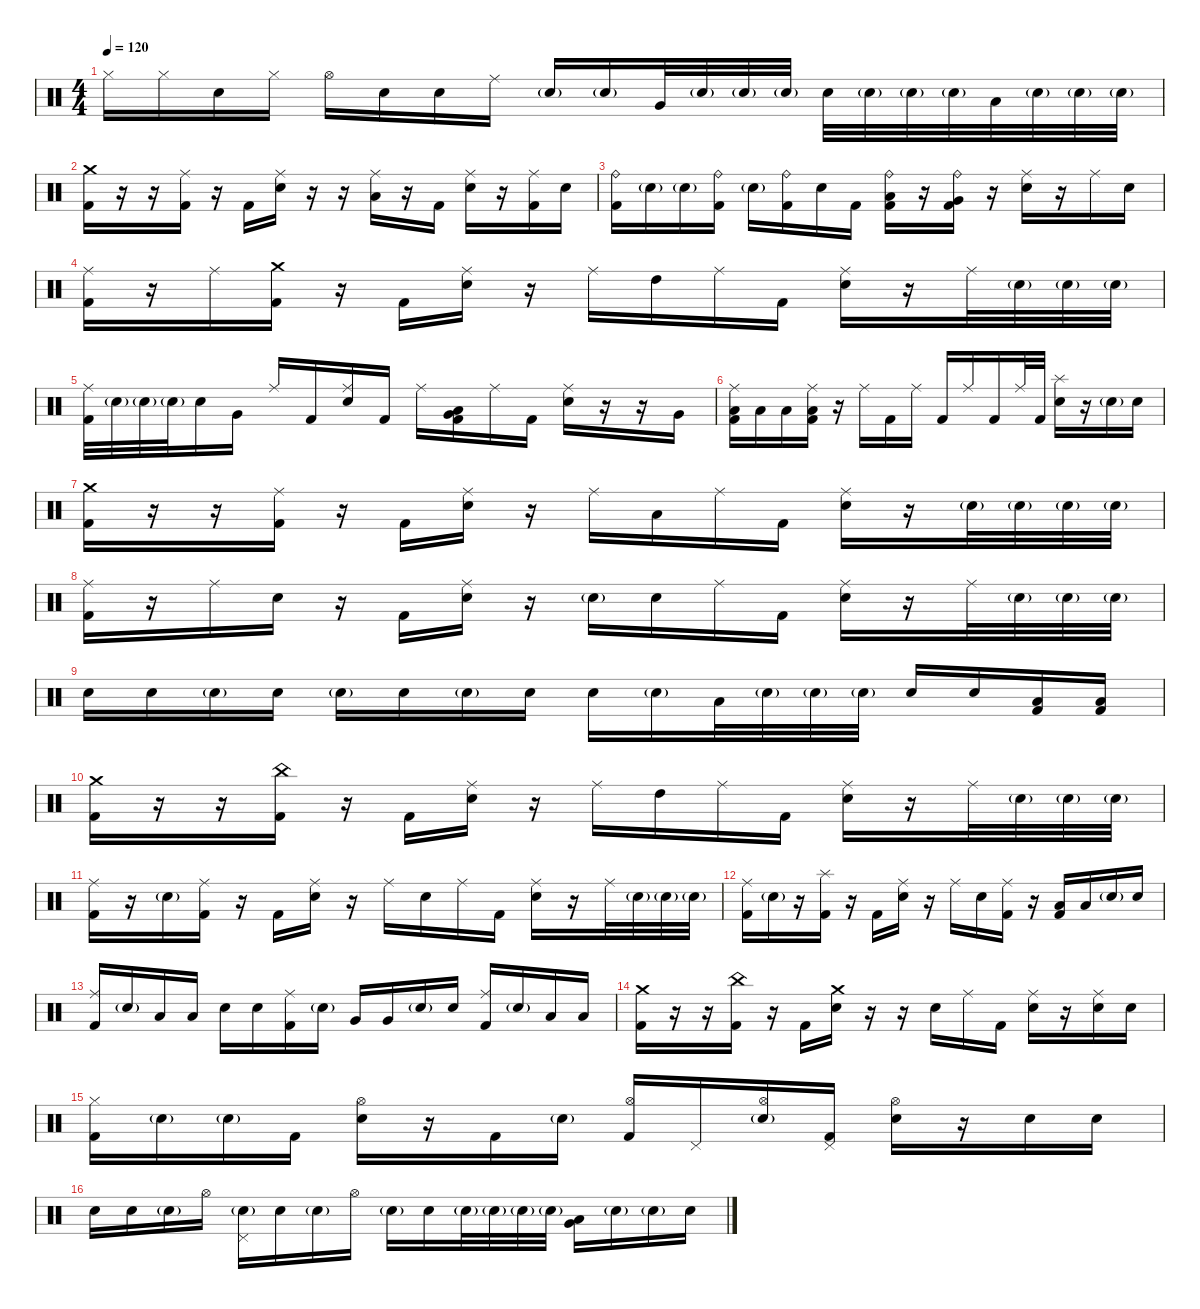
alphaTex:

\defaultSystemsLayout 4
\hideDynamics
\bracketExtendMode nobrackets
\singleTrackTrackNamePolicy hidden
\multiTrackTrackNamePolicy hidden
\firstSystemTrackNameMode fullname
\firstSystemTrackNameOrientation horizontal
\otherSystemsTrackNameOrientation horizontal
\track ("Martin Axenrot - Drums" "drm.") {instrument percussion}
\staff {score}
\articulation defaults
\ts (4 4)
\tempo 120
\clef neutral
\ks c "Hi-Hat (closed)".16{dy f beam Down} "Hi-Hat (closed)".16{beam Down} "Snare (hit) 2".16{beam Down} "Hi-Hat (closed)".16{dy mf beam Down} "Hi-Hat (open)".16{beam Down} "Snare (hit) 2".16{dy f beam Down} "Snare (hit) 2".16{beam Down} "Ride (middle)".16{dy ff beam Down} "Snare (hit) 2"{g}.16{dy mf beam Up} "Snare (hit) 2"{g}.16{beam Up} "Very Low Tom (hit)".32{dy ff beam Up} "Snare (hit) 2"{g}.32{dy mf beam Up} "Snare (hit) 2"{g}.32{beam Up} "Snare (hit) 2"{g}.32{beam Up} "Snare (hit) 2".32{dy f beam Down} "Snare (hit) 2"{g}.32{dy mf beam Down} "Snare (hit) 2"{g}.32{beam Down} "Snare (hit) 2"{g}.32{beam Down} "Low Floor Tom (hit)".32{dy ff beam Down} "Snare (hit) 2"{g}.32{dy mf beam Down} "Snare (hit) 2"{g}.32{beam Down} "Snare (hit) 2"{g}.32{beam Down}
|
("Crash medium (hit)" "Kick (hit) 2").16{dy f beam Down} r.16{beam Down} r.16{beam Down} ("Ride (middle)" "Kick (hit) 2").16{beam Down} r.16{beam Down} "Kick (hit) 2".16{beam Down} ("Ride (middle)" "Snare (hit) 2").16{beam Down} r.16{beam Down} r.16{beam Down} ("Ride (middle)" "Low Tom (hit)").16{beam Down} r.16{beam Down} "Kick (hit) 2".16{beam Down} ("Ride (middle)" "Snare (hit) 2").16{beam Down} r.16{beam Down} ("Ride (middle)" "Kick (hit) 2").16{beam Down} "Snare (hit) 2".16{beam Down} |
("Ride (bell)" "Kick (hit) 2").16{beam Down} "Snare (hit) 2"{g}.16{dy mf beam Down} "Snare (hit) 2"{g}.16{beam Down} ("Ride (bell)" "Kick (hit) 2").16{dy f beam Down} "Snare (hit) 2"{g}.16{dy mf beam Down} ("Ride (bell)" "Kick (hit) 2").16{dy f beam Down} "Snare (hit) 2".16{beam Down} "Kick (hit) 2".16{beam Down} ("Ride (bell)" "Low Tom (hit)" "Kick (hit) 2").16{beam Down} r.16{beam Down} ("Ride (bell)" "Very Low Tom (hit)" "Kick (hit) 2").16{beam Down} r.16{beam Down} ("Ride (middle)" "Snare (hit) 2").16{beam Down} r.16{beam Down} "Ride (middle)".16{beam Down} "Snare (hit) 2".16{beam Down} |
("Ride (middle)" "Kick (hit) 2").16{beam Down} r.16{beam Down} "Ride (middle)".16{beam Down} ("Crash medium (hit)" "Kick (hit) 2").16{dy mf beam Down} r.16{beam Down} "Kick (hit) 2".16{dy f beam Down} ("Ride (middle)" "Snare (hit) 2").16{beam Down} r.16{beam Down} "Ride (middle)".16{beam Down} "High Tom (hit)".16{dy ff beam Down} "Ride (middle)".16{dy mp beam Down} "Kick (hit) 2".16{dy f beam Down} ("Ride (middle)" "Snare (hit) 2").16{beam Down} r.16{beam Down} "Ride (middle)".32{beam Down} "Snare (hit) 2"{g}.32{dy mf beam Down} "Snare (hit) 2"{g}.32{beam Down} "Snare (hit) 2"{g}.32{beam Down} |
("Ride (middle)" "Kick (hit) 2").32{dy f beam Down} "Snare (hit) 2"{g}.32{dy mf beam Down} "Snare (hit) 2"{g}.32{beam Down} "Snare (hit) 2"{g}.32{beam Down} "Snare (hit) 2".16{dy f beam Down} "Very Low Tom (hit)".16{dy ff beam Down} "Ride (middle)".16{dy f beam Up} "Kick (hit) 2".16{beam Up} ("Ride (middle)" "Snare (hit) 2").16{beam Up} "Kick (hit) 2".16{beam Up} "Ride (middle)".16{beam Down} ("Low Tom (hit)" "Very Low Tom (hit)" "Kick (hit) 2").16{beam Down} "Ride (middle)".16{beam Down} "Kick (hit) 2".16{beam Down} ("Ride (middle)" "Snare (hit) 2").16{dy fff beam Down} r.16{beam Down} r.16{beam Down} "Very Low Tom (hit)".16{dy f beam Down} |
("Ride (middle)" "Low Floor Tom (hit)" "Kick (hit) 2").16{beam Down} "Low Floor Tom (hit)".16{beam Down} "Low Floor Tom (hit)".16{beam Down} ("Ride (middle)" "Low Floor Tom (hit)" "Kick (hit) 2").16{beam Down} r.16{beam Down} "Ride (middle)".16{beam Down} "Kick (hit) 2".16{beam Down} "Ride (middle)".16{beam Down} "Kick (hit) 2".16{beam Up} "Ride (middle)".16{beam Up} "Kick (hit) 2".16{beam Up} "Ride (middle)".32{beam Up} "Kick (hit) 2".32{beam Up} ("Splash (hit)" "Snare (hit) 2").16{dy fff beam Down} r.16{beam Down} "Snare (hit) 2"{g}.16{dy mf beam Down} "Snare (hit) 2".16{dy f beam Down} |
("Crash medium (hit)" "Kick (hit) 2").16{beam Down} r.16{beam Down} r.16{beam Down} ("Ride (middle)" "Kick (hit) 2").16{beam Down} r.16{beam Down} "Kick (hit) 2".16{beam Down} ("Ride (middle)" "Snare (hit) 2").16{beam Down} r.16{beam Down} "Ride (middle)".16{beam Down} "Low Tom (hit)".16{dy ff beam Down} "Ride (middle)".16{dy f beam Down} "Kick (hit) 2".16{beam Down} ("Ride (middle)" "Snare (hit) 2").16{beam Down} r.16{beam Down} "Snare (hit) 2"{g}.32{dy mf beam Down} "Snare (hit) 2"{g}.32{beam Down} "Snare (hit) 2"{g}.32{beam Down} "Snare (hit) 2"{g}.32{beam Down} |
("Ride (middle)" "Kick (hit) 2").16{dy f beam Down} r.16{beam Down} "Ride (middle)".16{beam Down} "Snare (hit) 2".16{beam Down} r.16{beam Down} "Kick (hit) 2".16{beam Down} ("Ride (middle)" "Snare (hit) 2").16{beam Down} r.16{beam Down} "Snare (hit) 2"{g}.16{dy mf beam Down} "Snare (hit) 2".16{dy f beam Down} "Ride (middle)".16{beam Down} "Kick (hit) 2".16{beam Down} ("Ride (middle)" "Snare (hit) 2").16{beam Down} r.16{beam Down} "Ride (middle)".32{beam Down} "Snare (hit) 2"{g}.32{dy mf beam Down} "Snare (hit) 2"{g}.32{beam Down} "Snare (hit) 2"{g}.32{beam Down} |
"Snare (hit) 2".16{dy f beam Down} "Snare (hit) 2".16{beam Down} "Snare (hit) 2"{g}.16{dy mf beam Down} "Snare (hit) 2".16{dy f beam Down} "Snare (hit) 2"{g}.16{dy mf beam Down} "Snare (hit) 2".16{dy f beam Down} "Snare (hit) 2"{g}.16{dy mf beam Down} "Snare (hit) 2".16{dy f beam Down} "Snare (hit) 2".16{beam Down} "Snare (hit) 2"{g}.16{dy mf beam Down} "Low Tom (hit)".32{dy ff beam Down} "Snare (hit) 2"{g}.32{dy mf beam Down} "Snare (hit) 2"{g}.32{beam Down} "Snare (hit) 2"{g}.32{beam Down} "Snare (hit) 2".16{dy f beam Up} "Snare (hit) 2".16{beam Up} ("Low Tom (hit)" "Kick (hit) 2").16{dy ff beam Up} ("Low Tom (hit)" "Kick (hit) 2").16{beam Up} |
("Crash medium (hit)" "Kick (hit) 2").16{dy f beam Down} r.16{beam Down} r.16{beam Down} ("China (hit)" "Kick (hit) 2").16{beam Down} r.16{beam Down} "Kick (hit) 2".16{beam Down} ("Ride (middle)" "Snare (hit) 2").16{beam Down} r.16{beam Down} "Ride (middle)".16{beam Down} "High Tom (hit)".16{dy ff beam Down} "Ride (middle)".16{dy f beam Down} "Kick (hit) 2".16{beam Down} ("Ride (middle)" "Snare (hit) 2").16{beam Down} r.16{beam Down} "Ride (middle)".32{beam Down} "Snare (hit) 2"{g}.32{dy mf beam Down} "Snare (hit) 2"{g}.32{beam Down} "Snare (hit) 2"{g}.32{beam Down} |
("Ride (middle)" "Kick (hit) 2").16{dy f beam Down} r.16{beam Down} "Snare (hit) 2"{g}.16{dy mf beam Down} ("Ride (middle)" "Kick (hit) 2").16{dy f beam Down} r.16{beam Down} "Kick (hit) 2".16{beam Down} ("Ride (middle)" "Snare (hit) 2").16{beam Down} r.16{beam Down} "Ride (middle)".16{beam Down} "Snare (hit) 2".16{dy mf beam Down} "Ride (middle)".16{dy f beam Down} "Kick (hit) 2".16{beam Down} ("Ride (middle)" "Snare (hit) 2").16{beam Down} r.16{beam Down} "Ride (middle)".32{beam Down} "Snare (hit) 2"{g}.32{dy mf beam Down} "Snare (hit) 2"{g}.32{beam Down} "Snare (hit) 2"{g}.32{beam Down} |
("Ride (middle)" "Kick (hit) 2").16{dy f beam Down} "Snare (hit) 2"{g}.16{dy mf beam Down} r.16{beam Down} ("Splash (hit)" "Kick (hit) 2").16{dy fff beam Down} r.16{beam Down} "Kick (hit) 2".16{dy f beam Down} ("Ride (middle)" "Snare (hit) 2").16{beam Down} r.16{beam Down} "Ride (middle)".16{beam Down} "Snare (hit) 2".16{beam Down} ("Ride (middle)" "Kick (hit) 2").16{beam Down} r.16{beam Down} ("Low Tom (hit)" "Kick (hit) 2").16{dy ff beam Up} "Low Tom (hit)".16{dy f beam Up} "Snare (hit) 2"{g}.16{dy mf beam Up} "Snare (hit) 2".16{dy f beam Up} |
("Ride (middle)" "Kick (hit) 2").16{beam Up} "Snare (hit) 2"{g}.16{dy mf beam Up} "Low Tom (hit)".16{dy f beam Up} "Low Tom (hit)".16{dy ff beam Up} "Snare (hit) 2".16{dy mf beam Down} "Snare (hit) 2".16{dy f beam Down} ("Ride (middle)" "Kick (hit) 2").16{beam Down} "Snare (hit) 2"{g}.16{dy mf beam Down} "Very Low Tom (hit)".16{dy f beam Up} "Very Low Tom (hit)".16{dy ff beam Up} "Snare (hit) 2"{g}.16{dy mf beam Up} "Snare (hit) 2".16{dy f beam Up} ("Ride (middle)" "Kick (hit) 2").16{beam Up} "Snare (hit) 2"{g}.16{dy mf beam Up} "Low Floor Tom (hit)".16{dy ff beam Up} "Low Floor Tom (hit)".16{dy fff beam Up} |
("Crash medium (hit)" "Kick (hit) 2").16{dy f beam Down} r.16{beam Down} r.16{beam Down} ("China (hit)" "Kick (hit) 2").16{beam Down} r.16{beam Down} "Kick (hit) 2".16{beam Down} ("Crash medium (hit)" "Snare (hit) 2").16{beam Down} r.16{beam Down} r.16{beam Down} "Snare (hit) 2".16{beam Down} "Ride (middle)".16{beam Down} "Kick (hit) 2".16{beam Down} ("Ride (middle)" "Snare (hit) 2").16{beam Down} r.16{beam Down} ("Ride (middle)" "Snare (hit) 2").16{beam Down} "Snare (hit) 2".16{beam Down} |
("Hi-Hat (closed)" "Kick (hit) 2").16{beam Down} "Snare (hit) 2"{g}.16{dy mf beam Down} "Snare (hit) 2"{g}.16{beam Down} "Kick (hit) 2".16{dy f beam Down} ("Hi-Hat (open)" "Snare (hit) 2").16{beam Down} r.16{beam Down} "Kick (hit) 2".16{beam Down} "Snare (hit) 2"{g}.16{dy mf beam Down} ("Hi-Hat (open)" "Kick (hit) 2").16{beam Up} "Pedal Hi-Hat (hit)".16{dy f beam Up} ("Hi-Hat (open)" "Snare (hit) 2"{g}).16{dy mf beam Up} ("Pedal Hi-Hat (hit)" "Kick (hit) 2").16{dy f beam Up} ("Hi-Hat (open)" "Snare (hit) 2").16{beam Down} r.16{beam Down} "Snare (hit) 2".16{dy mf beam Down} "Snare (hit) 2".16{dy f beam Down} |
"Snare (hit) 2".16{dy fff beam Down} "Snare (hit) 2".16{dy f beam Down} "Snare (hit) 2"{g}.16{dy mf beam Down} "Hi-Hat (open)".16{dy f beam Down} ("Snare (hit) 2"{g} "Pedal Hi-Hat (hit)").16{beam Down} "Snare (hit) 2".16{beam Down} "Snare (hit) 2"{g}.16{dy mf beam Down} "Hi-Hat (open)".16{dy f beam Down} "Snare (hit) 2"{g}.16{dy mf beam Down} "Snare (hit) 2".16{dy f beam Down} "Snare (hit) 2"{g}.32{dy mf beam Down} "Snare (hit) 2"{g}.32{beam Down} "Snare (hit) 2"{g}.32{beam Down} "Snare (hit) 2"{g}.32{beam Down} ("Low Tom (hit)" "Very Low Tom (hit)").16{dy ff beam Down} "Snare (hit) 2"{g}.16{dy mf beam Down} "Snare (hit) 2"{g}.16{beam Down} "Snare (hit) 2".16{dy f beam Down}
